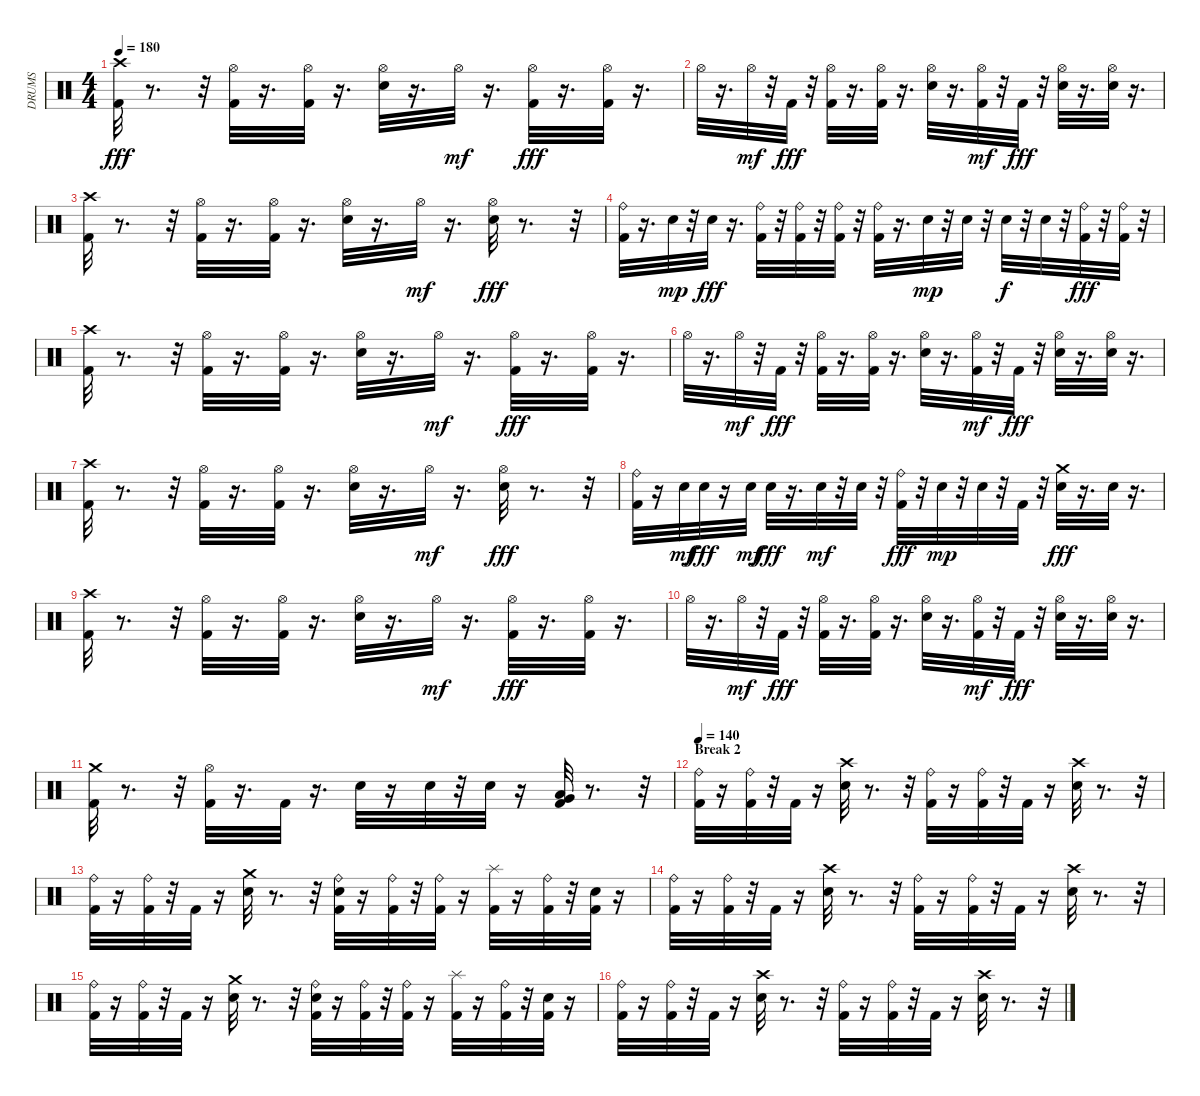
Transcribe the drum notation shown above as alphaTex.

\track ("DRUMS" "DRUMS") {instrument percussion}
\staff {score}
\articulation defaults
\ts (4 4)
\tempo 180
\clef neutral
\ks c
("Crash high (hit)" "Kick (hit) 2").32{dy fff} r.8{d} r.32 ("Hi-Hat (open)" "Kick (hit) 2").32 r.16{d} ("Hi-Hat (open)" "Kick (hit) 2").32 r.16{d} ("Hi-Hat (open)" "Electric Snare (hit)").32 r.16{d} "Hi-Hat (open)".32{dy mf} r.16{d} ("Hi-Hat (open)" "Kick (hit) 2").32{dy fff} r.16{d} ("Hi-Hat (open)" "Kick (hit) 2").32 r.16{d} |
"Hi-Hat (open)".32 r.16{d} "Hi-Hat (open)".32{dy mf} r.32 "Kick (hit) 2".32{dy fff} r.32 ("Hi-Hat (open)" "Kick (hit) 2").32 r.16{d} ("Hi-Hat (open)" "Kick (hit) 2").32 r.16{d} ("Hi-Hat (open)" "Electric Snare (hit)").32 r.16{d} ("Hi-Hat (open)" "Kick (hit) 2").32{dy mf} r.32 "Kick (hit) 2".32{dy fff} r.32 ("Hi-Hat (open)" "Electric Snare (hit)").32 r.16{d} ("Hi-Hat (open)" "Electric Snare (hit)").32 r.16{d} |
("Crash high (hit)" "Kick (hit) 2").32 r.8{d} r.32 ("Hi-Hat (open)" "Kick (hit) 2").32 r.16{d} ("Hi-Hat (open)" "Kick (hit) 2").32 r.16{d} ("Hi-Hat (open)" "Electric Snare (hit)").32 r.16{d} "Hi-Hat (open)".32{dy mf} r.16{d} ("Hi-Hat (open)" "Electric Snare (hit)").32{dy fff} r.8{d} r.32 |
("Ride (bell)" "Kick (hit) 2").32 r.16{d} "Electric Snare (hit)".32{dy mp} r.32 "Electric Snare (hit)".32{dy fff} r.16{d} ("Ride (bell)" "Kick (hit) 2").32 r.32 ("Ride (bell)" "Kick (hit) 2").32 r.32 ("Ride (bell)" "Kick (hit) 2").32 r.32 ("Ride (bell)" "Kick (hit) 2").32 r.16{d} "Electric Snare (hit)".32{dy mp} r.32 "Electric Snare (hit)".32 r.32 "Electric Snare (hit)".32{dy f} r.32 "Electric Snare (hit)".32 r.32 ("Ride (bell)" "Kick (hit) 2").32{dy fff} r.32 ("Ride (bell)" "Kick (hit) 2").32 r.32 |
("Crash high (hit)" "Kick (hit) 2").32 r.8{d} r.32 ("Hi-Hat (open)" "Kick (hit) 2").32 r.16{d} ("Hi-Hat (open)" "Kick (hit) 2").32 r.16{d} ("Hi-Hat (open)" "Electric Snare (hit)").32 r.16{d} "Hi-Hat (open)".32{dy mf} r.16{d} ("Hi-Hat (open)" "Kick (hit) 2").32{dy fff} r.16{d} ("Hi-Hat (open)" "Kick (hit) 2").32 r.16{d} |
"Hi-Hat (open)".32 r.16{d} "Hi-Hat (open)".32{dy mf} r.32 "Kick (hit) 2".32{dy fff} r.32 ("Hi-Hat (open)" "Kick (hit) 2").32 r.16{d} ("Hi-Hat (open)" "Kick (hit) 2").32 r.16{d} ("Hi-Hat (open)" "Electric Snare (hit)").32 r.16{d} ("Hi-Hat (open)" "Kick (hit) 2").32{dy mf} r.32 "Kick (hit) 2".32{dy fff} r.32 ("Hi-Hat (open)" "Electric Snare (hit)").32 r.16{d} ("Hi-Hat (open)" "Electric Snare (hit)").32 r.16{d} |
("Crash high (hit)" "Kick (hit) 2").32 r.8{d} r.32 ("Hi-Hat (open)" "Kick (hit) 2").32 r.16{d} ("Hi-Hat (open)" "Kick (hit) 2").32 r.16{d} ("Hi-Hat (open)" "Electric Snare (hit)").32 r.16{d} "Hi-Hat (open)".32{dy mf} r.16{d} ("Hi-Hat (open)" "Electric Snare (hit)").32{dy fff} r.8{d} r.32 |
("Ride (bell)" "Kick (hit) 2").32 r.16 "Electric Snare (hit)".32{dy mf} "Electric Snare (hit)".32{dy fff} r.16 "Electric Snare (hit)".32{dy mf} "Electric Snare (hit)".32{dy fff} r.16{d} "Electric Snare (hit)".32{dy mf} r.32 "Electric Snare (hit)".32 r.32 ("Ride (bell)" "Kick (hit) 2").32{dy fff} r.32 "Electric Snare (hit)".32{dy mp} r.32 "Electric Snare (hit)".32 r.32 "Kick (hit) 2".32 r.32 ("Crash medium (hit)" "Electric Snare (hit)").32{dy fff} r.16{d} "Electric Snare (hit)".32 r.16{d} |
("Crash high (hit)" "Kick (hit) 2").32 r.8{d} r.32 ("Hi-Hat (open)" "Kick (hit) 2").32 r.16{d} ("Hi-Hat (open)" "Kick (hit) 2").32 r.16{d} ("Hi-Hat (open)" "Electric Snare (hit)").32 r.16{d} "Hi-Hat (open)".32{dy mf} r.16{d} ("Hi-Hat (open)" "Kick (hit) 2").32{dy fff} r.16{d} ("Hi-Hat (open)" "Kick (hit) 2").32 r.16{d} |
"Hi-Hat (open)".32 r.16{d} "Hi-Hat (open)".32{dy mf} r.32 "Kick (hit) 2".32{dy fff} r.32 ("Hi-Hat (open)" "Kick (hit) 2").32 r.16{d} ("Hi-Hat (open)" "Kick (hit) 2").32 r.16{d} ("Hi-Hat (open)" "Electric Snare (hit)").32 r.16{d} ("Hi-Hat (open)" "Kick (hit) 2").32{dy mf} r.32 "Kick (hit) 2".32{dy fff} r.32 ("Hi-Hat (open)" "Electric Snare (hit)").32 r.16{d} ("Hi-Hat (open)" "Electric Snare (hit)").32 r.16{d} |
("Crash medium (hit)" "Kick (hit) 2").32 r.8{d} r.32 ("Hi-Hat (open)" "Kick (hit) 2").32 r.16{d} "Kick (hit) 2".32 r.16{d} "Electric Snare (hit)".32 r.16 "Electric Snare (hit)".32 r.32 "Electric Snare (hit)".32 r.16 ("Very Low Tom (hit)" "Low Floor Tom (hit)" "Kick (hit) 2").32 r.8{d} r.32 |
\section ("" "Break 2")
\tempo 140
("Ride (bell)" "Kick (hit) 2").32 r.16 ("Ride (bell)" "Kick (hit) 2").32 r.32 "Kick (hit) 2".32 r.16 ("Crash high (hit)" "Electric Snare (hit)").32 r.8{d} r.32 ("Ride (bell)" "Kick (hit) 2").32 r.16 ("Ride (bell)" "Kick (hit) 2").32 r.32 "Kick (hit) 2".32 r.16 ("Crash high (hit)" "Electric Snare (hit)").32 r.8{d} r.32 |
("Ride (bell)" "Kick (hit) 2").32 r.16 ("Ride (bell)" "Kick (hit) 2").32 r.32 "Kick (hit) 2".32 r.16 ("Crash medium (hit)" "Electric Snare (hit)").32 r.8{d} r.32 ("Ride (bell)" "Electric Snare (hit)" "Kick (hit) 2").32 r.16 ("Ride (bell)" "Kick (hit) 2").32 r.32 ("Ride (bell)" "Kick (hit) 2").32 r.16 ("Splash (hit)" "Kick (hit) 2").32 r.16 ("Ride (bell)" "Kick (hit) 2").32 r.32 ("Electric Snare (hit)" "Kick (hit) 2").32 r.16 |
("Ride (bell)" "Kick (hit) 2").32 r.16 ("Ride (bell)" "Kick (hit) 2").32 r.32 "Kick (hit) 2".32 r.16 ("Crash high (hit)" "Electric Snare (hit)").32 r.8{d} r.32 ("Ride (bell)" "Kick (hit) 2").32 r.16 ("Ride (bell)" "Kick (hit) 2").32 r.32 "Kick (hit) 2".32 r.16 ("Crash high (hit)" "Electric Snare (hit)").32 r.8{d} r.32 |
("Ride (bell)" "Kick (hit) 2").32 r.16 ("Ride (bell)" "Kick (hit) 2").32 r.32 "Kick (hit) 2".32 r.16 ("Crash medium (hit)" "Electric Snare (hit)").32 r.8{d} r.32 ("Ride (bell)" "Electric Snare (hit)" "Kick (hit) 2").32 r.16 ("Ride (bell)" "Kick (hit) 2").32 r.32 ("Ride (bell)" "Kick (hit) 2").32 r.16 ("Splash (hit)" "Kick (hit) 2").32 r.16 ("Ride (bell)" "Kick (hit) 2").32 r.32 ("Electric Snare (hit)" "Kick (hit) 2").32 r.16 |
("Ride (bell)" "Kick (hit) 2").32 r.16 ("Ride (bell)" "Kick (hit) 2").32 r.32 "Kick (hit) 2".32 r.16 ("Crash high (hit)" "Electric Snare (hit)").32 r.8{d} r.32 ("Ride (bell)" "Kick (hit) 2").32 r.16 ("Ride (bell)" "Kick (hit) 2").32 r.32 "Kick (hit) 2".32 r.16 ("Crash high (hit)" "Electric Snare (hit)").32 r.8{d} r.32
